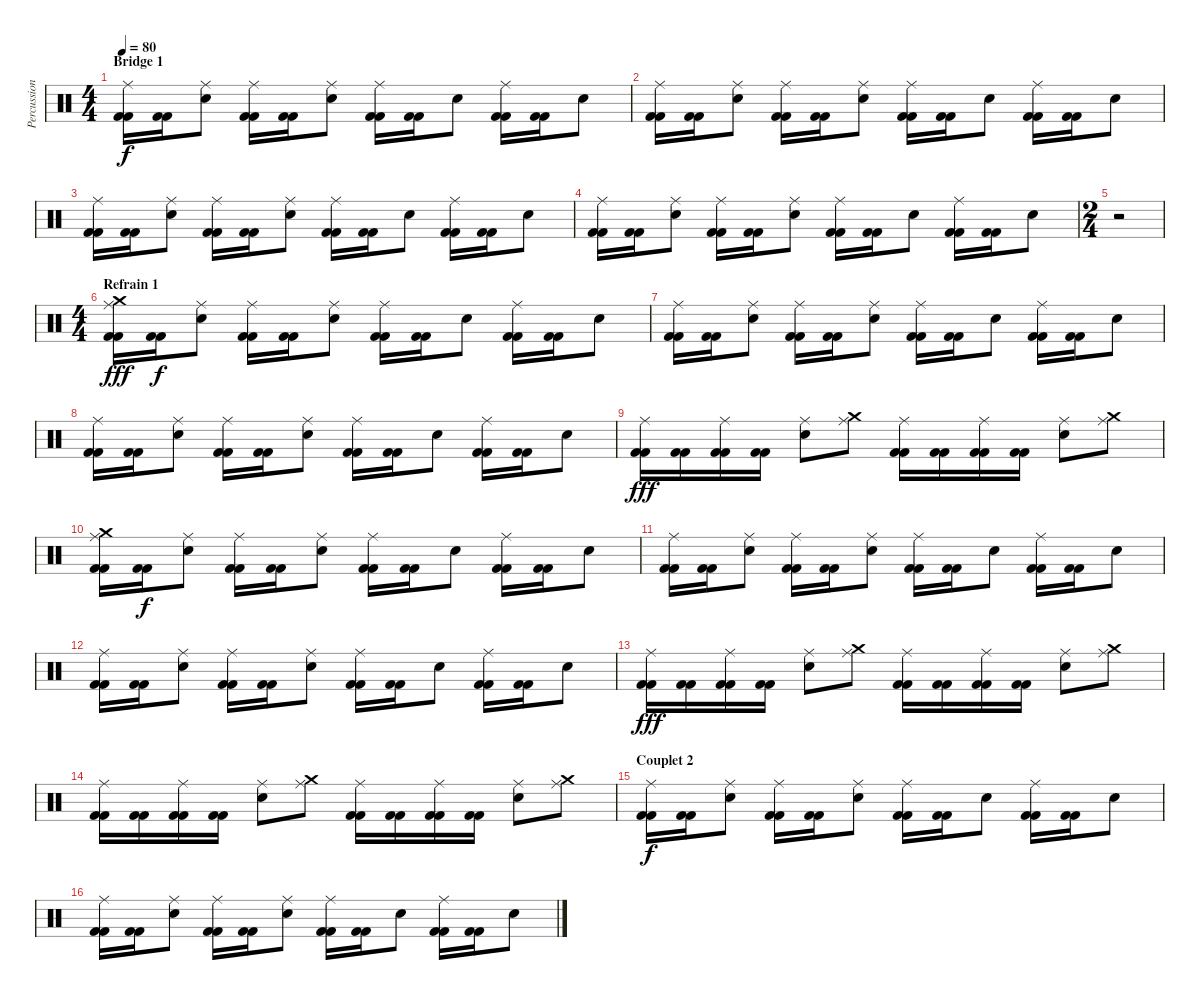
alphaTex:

\track ("Percussions" "Percussion") {instrument percussion}
\staff {score}
\articulation defaults
\ts (4 4)
\section ("" "Bridge 1")
\tempo 80
\clef neutral
\ks c
("Kick (hit) 2" "Kick (hit) 2" "Ride (middle)").16{dy f} ("Kick (hit) 2" "Kick (hit) 2").16 ("Snare (hit) 2" "Ride (middle)").8 ("Kick (hit) 2" "Kick (hit) 2" "Ride (middle)").16 ("Kick (hit) 2" "Kick (hit) 2").16 ("Snare (hit) 2" "Ride (middle)").8 ("Kick (hit) 2" "Kick (hit) 2" "Ride (middle)").16 ("Kick (hit) 2" "Kick (hit) 2").16 "Snare (hit) 2".8 ("Kick (hit) 2" "Kick (hit) 2" "Ride (middle)").16 ("Kick (hit) 2" "Kick (hit) 2").16 "Snare (hit) 2".8 |
("Kick (hit) 2" "Kick (hit) 2" "Ride (middle)").16 ("Kick (hit) 2" "Kick (hit) 2").16 ("Snare (hit) 2" "Ride (middle)").8 ("Kick (hit) 2" "Kick (hit) 2" "Ride (middle)").16 ("Kick (hit) 2" "Kick (hit) 2").16 ("Snare (hit) 2" "Ride (middle)").8 ("Kick (hit) 2" "Kick (hit) 2" "Ride (middle)").16 ("Kick (hit) 2" "Kick (hit) 2").16 "Snare (hit) 2".8 ("Kick (hit) 2" "Kick (hit) 2" "Ride (middle)").16 ("Kick (hit) 2" "Kick (hit) 2").16 "Snare (hit) 2".8 |
("Kick (hit) 2" "Kick (hit) 2" "Ride (middle)").16 ("Kick (hit) 2" "Kick (hit) 2").16 ("Snare (hit) 2" "Ride (middle)").8 ("Kick (hit) 2" "Kick (hit) 2" "Ride (middle)").16 ("Kick (hit) 2" "Kick (hit) 2").16 ("Snare (hit) 2" "Ride (middle)").8 ("Kick (hit) 2" "Kick (hit) 2" "Ride (middle)").16 ("Kick (hit) 2" "Kick (hit) 2").16 "Snare (hit) 2".8 ("Kick (hit) 2" "Kick (hit) 2" "Ride (middle)").16 ("Kick (hit) 2" "Kick (hit) 2").16 "Snare (hit) 2".8 |
("Kick (hit) 2" "Kick (hit) 2" "Ride (middle)").16 ("Kick (hit) 2" "Kick (hit) 2").16 ("Snare (hit) 2" "Ride (middle)").8 ("Kick (hit) 2" "Kick (hit) 2" "Ride (middle)").16 ("Kick (hit) 2" "Kick (hit) 2").16 ("Snare (hit) 2" "Ride (middle)").8 ("Kick (hit) 2" "Kick (hit) 2" "Ride (middle)").16 ("Kick (hit) 2" "Kick (hit) 2").16 "Snare (hit) 2".8 ("Kick (hit) 2" "Kick (hit) 2" "Ride (middle)").16 ("Kick (hit) 2" "Kick (hit) 2").16 "Snare (hit) 2".8 |
\ts (2 4)
r.2 |
\ts (4 4)
\section ("" "Refrain 1")
("Crash medium (hit)" "Kick (hit) 2" "Kick (hit) 2" "Ride (middle)").16{dy fff} ("Kick (hit) 2" "Kick (hit) 2").16{dy f} ("Snare (hit) 2" "Ride (middle)").8 ("Kick (hit) 2" "Kick (hit) 2" "Ride (middle)").16 ("Kick (hit) 2" "Kick (hit) 2").16 ("Snare (hit) 2" "Ride (middle)").8 ("Kick (hit) 2" "Kick (hit) 2" "Ride (middle)").16 ("Kick (hit) 2" "Kick (hit) 2").16 "Snare (hit) 2".8 ("Kick (hit) 2" "Kick (hit) 2" "Ride (middle)").16 ("Kick (hit) 2" "Kick (hit) 2").16 "Snare (hit) 2".8 |
("Kick (hit) 2" "Kick (hit) 2" "Ride (middle)").16 ("Kick (hit) 2" "Kick (hit) 2").16 ("Snare (hit) 2" "Ride (middle)").8 ("Kick (hit) 2" "Kick (hit) 2" "Ride (middle)").16 ("Kick (hit) 2" "Kick (hit) 2").16 ("Snare (hit) 2" "Ride (middle)").8 ("Kick (hit) 2" "Kick (hit) 2" "Ride (middle)").16 ("Kick (hit) 2" "Kick (hit) 2").16 "Snare (hit) 2".8 ("Kick (hit) 2" "Kick (hit) 2" "Ride (middle)").16 ("Kick (hit) 2" "Kick (hit) 2").16 "Snare (hit) 2".8 |
("Kick (hit) 2" "Kick (hit) 2" "Ride (middle)").16 ("Kick (hit) 2" "Kick (hit) 2").16 ("Snare (hit) 2" "Ride (middle)").8 ("Kick (hit) 2" "Kick (hit) 2" "Ride (middle)").16 ("Kick (hit) 2" "Kick (hit) 2").16 ("Snare (hit) 2" "Ride (middle)").8 ("Kick (hit) 2" "Kick (hit) 2" "Ride (middle)").16 ("Kick (hit) 2" "Kick (hit) 2").16 "Snare (hit) 2".8 ("Kick (hit) 2" "Kick (hit) 2" "Ride (middle)").16 ("Kick (hit) 2" "Kick (hit) 2").16 "Snare (hit) 2".8 |
("Kick (hit) 2" "Kick (hit) 2" "Ride (middle)").16{dy fff} ("Kick (hit) 2" "Kick (hit) 2").16 ("Kick (hit) 2" "Kick (hit) 2" "Ride (middle)").16 ("Kick (hit) 2" "Kick (hit) 2").16 ("Snare (hit) 2" "Ride (middle)").8 ("Crash medium (hit)" "Ride (middle)").8 ("Kick (hit) 2" "Kick (hit) 2" "Ride (middle)").16 ("Kick (hit) 2" "Kick (hit) 2").16 ("Kick (hit) 2" "Kick (hit) 2" "Ride (middle)").16 ("Kick (hit) 2" "Kick (hit) 2").16 ("Snare (hit) 2" "Ride (middle)").8 ("Crash medium (hit)" "Ride (middle)").8 |
("Crash medium (hit)" "Kick (hit) 2" "Kick (hit) 2" "Ride (middle)").16 ("Kick (hit) 2" "Kick (hit) 2").16{dy f} ("Snare (hit) 2" "Ride (middle)").8 ("Kick (hit) 2" "Kick (hit) 2" "Ride (middle)").16 ("Kick (hit) 2" "Kick (hit) 2").16 ("Snare (hit) 2" "Ride (middle)").8 ("Kick (hit) 2" "Kick (hit) 2" "Ride (middle)").16 ("Kick (hit) 2" "Kick (hit) 2").16 "Snare (hit) 2".8 ("Kick (hit) 2" "Kick (hit) 2" "Ride (middle)").16 ("Kick (hit) 2" "Kick (hit) 2").16 "Snare (hit) 2".8 |
("Kick (hit) 2" "Kick (hit) 2" "Ride (middle)").16 ("Kick (hit) 2" "Kick (hit) 2").16 ("Snare (hit) 2" "Ride (middle)").8 ("Kick (hit) 2" "Kick (hit) 2" "Ride (middle)").16 ("Kick (hit) 2" "Kick (hit) 2").16 ("Snare (hit) 2" "Ride (middle)").8 ("Kick (hit) 2" "Kick (hit) 2" "Ride (middle)").16 ("Kick (hit) 2" "Kick (hit) 2").16 "Snare (hit) 2".8 ("Kick (hit) 2" "Kick (hit) 2" "Ride (middle)").16 ("Kick (hit) 2" "Kick (hit) 2").16 "Snare (hit) 2".8 |
("Kick (hit) 2" "Kick (hit) 2" "Ride (middle)").16 ("Kick (hit) 2" "Kick (hit) 2").16 ("Snare (hit) 2" "Ride (middle)").8 ("Kick (hit) 2" "Kick (hit) 2" "Ride (middle)").16 ("Kick (hit) 2" "Kick (hit) 2").16 ("Snare (hit) 2" "Ride (middle)").8 ("Kick (hit) 2" "Kick (hit) 2" "Ride (middle)").16 ("Kick (hit) 2" "Kick (hit) 2").16 "Snare (hit) 2".8 ("Kick (hit) 2" "Kick (hit) 2" "Ride (middle)").16 ("Kick (hit) 2" "Kick (hit) 2").16 "Snare (hit) 2".8 |
("Kick (hit) 2" "Kick (hit) 2" "Ride (middle)").16{dy fff} ("Kick (hit) 2" "Kick (hit) 2").16 ("Kick (hit) 2" "Kick (hit) 2" "Ride (middle)").16 ("Kick (hit) 2" "Kick (hit) 2").16 ("Snare (hit) 2" "Ride (middle)").8 ("Crash medium (hit)" "Ride (middle)").8 ("Kick (hit) 2" "Kick (hit) 2" "Ride (middle)").16 ("Kick (hit) 2" "Kick (hit) 2").16 ("Kick (hit) 2" "Kick (hit) 2" "Ride (middle)").16 ("Kick (hit) 2" "Kick (hit) 2").16 ("Snare (hit) 2" "Ride (middle)").8 ("Crash medium (hit)" "Ride (middle)").8 |
("Kick (hit) 2" "Kick (hit) 2" "Ride (middle)").16 ("Kick (hit) 2" "Kick (hit) 2").16 ("Kick (hit) 2" "Kick (hit) 2" "Ride (middle)").16 ("Kick (hit) 2" "Kick (hit) 2").16 ("Snare (hit) 2" "Ride (middle)").8 ("Crash medium (hit)" "Ride (middle)").8 ("Kick (hit) 2" "Kick (hit) 2" "Ride (middle)").16 ("Kick (hit) 2" "Kick (hit) 2").16 ("Kick (hit) 2" "Kick (hit) 2" "Ride (middle)").16 ("Kick (hit) 2" "Kick (hit) 2").16 ("Snare (hit) 2" "Ride (middle)").8 ("Crash medium (hit)" "Ride (middle)").8 |
\section ("" "Couplet 2")
("Kick (hit) 2" "Kick (hit) 2" "Ride (middle)").16{dy f} ("Kick (hit) 2" "Kick (hit) 2").16 ("Snare (hit) 2" "Ride (middle)").8 ("Kick (hit) 2" "Kick (hit) 2" "Ride (middle)").16 ("Kick (hit) 2" "Kick (hit) 2").16 ("Snare (hit) 2" "Ride (middle)").8 ("Kick (hit) 2" "Kick (hit) 2" "Ride (middle)").16 ("Kick (hit) 2" "Kick (hit) 2").16 "Snare (hit) 2".8 ("Kick (hit) 2" "Kick (hit) 2" "Ride (middle)").16 ("Kick (hit) 2" "Kick (hit) 2").16 "Snare (hit) 2".8 |
("Kick (hit) 2" "Kick (hit) 2" "Ride (middle)").16 ("Kick (hit) 2" "Kick (hit) 2").16 ("Snare (hit) 2" "Ride (middle)").8 ("Kick (hit) 2" "Kick (hit) 2" "Ride (middle)").16 ("Kick (hit) 2" "Kick (hit) 2").16 ("Snare (hit) 2" "Ride (middle)").8 ("Kick (hit) 2" "Kick (hit) 2" "Ride (middle)").16 ("Kick (hit) 2" "Kick (hit) 2").16 "Snare (hit) 2".8 ("Kick (hit) 2" "Kick (hit) 2" "Ride (middle)").16 ("Kick (hit) 2" "Kick (hit) 2").16 "Snare (hit) 2".8
